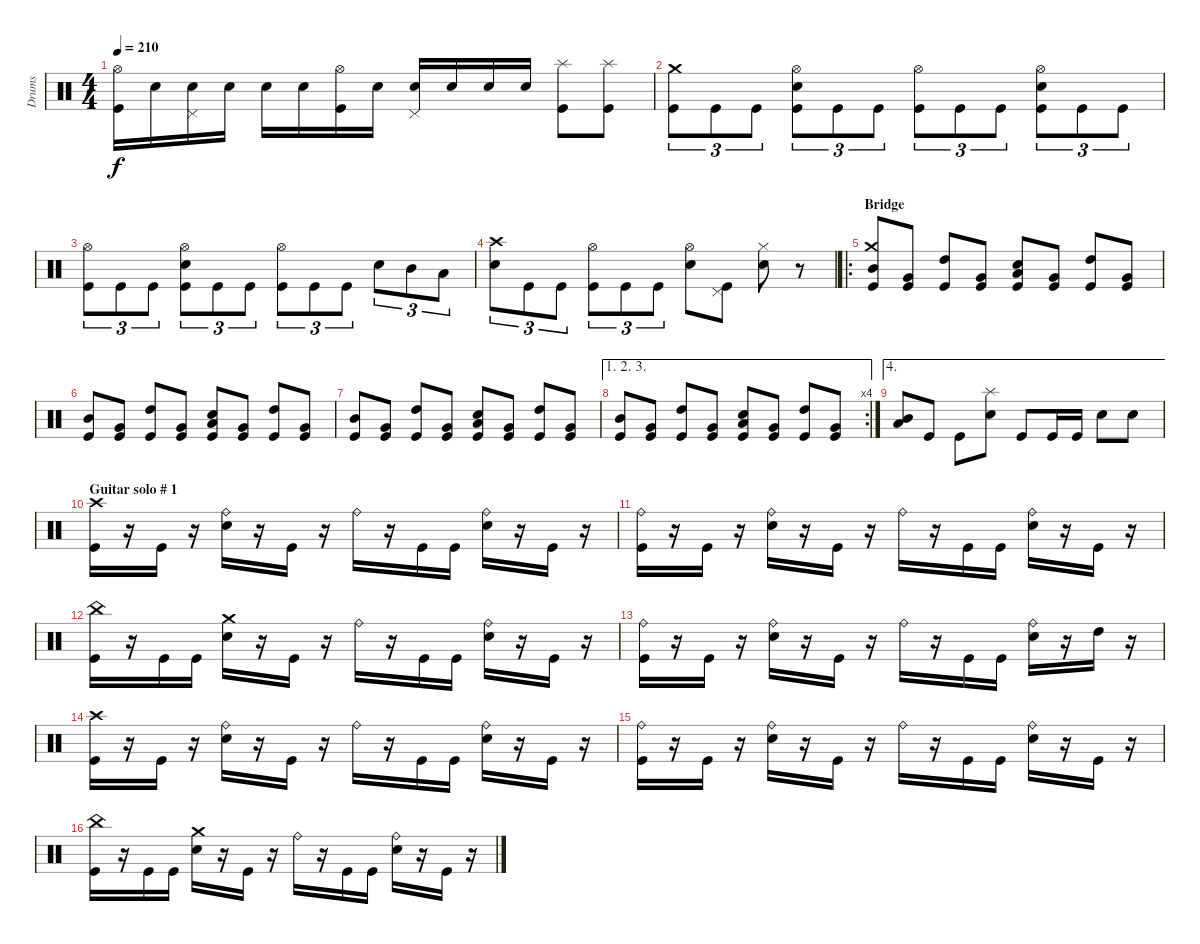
\track ("Drums" "Drums") {instrument percussion}
\staff {score}
\articulation defaults
\ts (4 4)
\tempo 210
\clef neutral
\ks c
("Hi-Hat (open)" "Kick (hit)").16{dy f} "Electric Snare (hit)".16 ("Pedal Hi-Hat (hit)" "Electric Snare (hit)").16 "Electric Snare (hit)".16 "Electric Snare (hit)".16 "Electric Snare (hit)".16 ("Hi-Hat (open)" "Kick (hit)").16 "Electric Snare (hit)".16 ("Pedal Hi-Hat (hit)" "Electric Snare (hit)").16 "Electric Snare (hit)".16 "Electric Snare (hit)".16 "Electric Snare (hit)".16 ("Splash (hit)" "Kick (hit)").8 ("Splash (hit)" "Kick (hit)").8 |
("Crash medium (hit)" "Kick (hit)").8{tu (3 2)} "Kick (hit)".8{tu (3 2)} "Kick (hit)".8{tu (3 2)} ("Hi-Hat (open)" "Electric Snare (hit)" "Kick (hit)").8{tu (3 2)} "Kick (hit)".8{tu (3 2)} "Kick (hit)".8{tu (3 2)} ("Hi-Hat (open)" "Kick (hit)").8{tu (3 2)} "Kick (hit)".8{tu (3 2)} "Kick (hit)".8{tu (3 2)} ("Hi-Hat (open)" "Electric Snare (hit)" "Kick (hit)").8{tu (3 2)} "Kick (hit)".8{tu (3 2)} "Kick (hit)".8{tu (3 2)} |
("Hi-Hat (open)" "Kick (hit)").8{tu (3 2)} "Kick (hit)".8{tu (3 2)} "Kick (hit)".8{tu (3 2)} ("Hi-Hat (open)" "Electric Snare (hit)" "Kick (hit)").8{tu (3 2)} "Kick (hit)".8{tu (3 2)} "Kick (hit)".8{tu (3 2)} ("Hi-Hat (open)" "Kick (hit)").8{tu (3 2)} "Kick (hit)".8{tu (3 2)} "Kick (hit)".8{tu (3 2)} "Electric Snare (hit)".8{tu (3 2)} "Mid Tom (hit)".8{tu (3 2)} "Low Tom (hit)".8{tu (3 2)} |
("Crash high (hit)" "Electric Snare (hit)").8{tu (3 2)} "Kick (hit)".8{tu (3 2)} "Kick (hit)".8{tu (3 2)} ("Hi-Hat (open)" "Kick (hit)").8{tu (3 2)} "Kick (hit)".8{tu (3 2)} "Kick (hit)".8{tu (3 2)} ("Hi-Hat (open)" "Electric Snare (hit)").8 ("Pedal Hi-Hat (hit)" "Kick (hit)").8 ("Hi-Hat (closed)" "Electric Snare (hit)").8 r.8 |
\ro
\section ("" "Bridge")
("Crash medium (hit)" "Mid Tom (hit)" "Kick (hit)").8 ("Very Low Tom (hit)" "Kick (hit)").8 ("High Tom (hit)" "Kick (hit)").8 ("Very Low Tom (hit)" "Kick (hit)").8 ("Low Tom (hit)" "Electric Snare (hit)" "Kick (hit)").8 ("Very Low Tom (hit)" "Kick (hit)").8 ("High Tom (hit)" "Kick (hit)").8 ("Very Low Tom (hit)" "Kick (hit)").8 |
("Mid Tom (hit)" "Kick (hit)").8 ("Very Low Tom (hit)" "Kick (hit)").8 ("High Tom (hit)" "Kick (hit)").8 ("Very Low Tom (hit)" "Kick (hit)").8 ("Low Tom (hit)" "Electric Snare (hit)" "Kick (hit)").8 ("Very Low Tom (hit)" "Kick (hit)").8 ("High Tom (hit)" "Kick (hit)").8 ("Very Low Tom (hit)" "Kick (hit)").8 |
("Mid Tom (hit)" "Kick (hit)").8 ("Very Low Tom (hit)" "Kick (hit)").8 ("High Tom (hit)" "Kick (hit)").8 ("Very Low Tom (hit)" "Kick (hit)").8 ("Low Tom (hit)" "Electric Snare (hit)" "Kick (hit)").8 ("Very Low Tom (hit)" "Kick (hit)").8 ("High Tom (hit)" "Kick (hit)").8 ("Very Low Tom (hit)" "Kick (hit)").8 |
\ae (1 2 3)
\rc 4
("Mid Tom (hit)" "Kick (hit)").8 ("Very Low Tom (hit)" "Kick (hit)").8 ("High Tom (hit)" "Kick (hit)").8 ("Very Low Tom (hit)" "Kick (hit)").8 ("Low Tom (hit)" "Electric Snare (hit)" "Kick (hit)").8 ("Very Low Tom (hit)" "Kick (hit)").8 ("High Tom (hit)" "Kick (hit)").8 ("Very Low Tom (hit)" "Kick (hit)").8 |
\ae 4
("Mid Tom (hit)" "Low Tom (hit)").8 "Kick (hit)".8 "Kick (hit)".8 ("Splash (hit)" "Electric Snare (hit)").8 "Kick (hit)".8 "Kick (hit)".16 "Kick (hit)".16 "Electric Snare (hit)".8 "Electric Snare (hit)".8 |
\section ("" "Guitar solo # 1")
("Crash high (hit)" "Kick (hit)").16 r.16 "Kick (hit)".16 r.16 ("Ride (bell)" "Electric Snare (hit)").16 r.16 "Kick (hit)".16 r.16 "Ride (bell)".16 r.16 "Kick (hit)".16 "Kick (hit)".16 ("Ride (bell)" "Electric Snare (hit)").16 r.16 "Kick (hit)".16 r.16 |
("Ride (bell)" "Kick (hit)").16 r.16 "Kick (hit)".16 r.16 ("Ride (bell)" "Electric Snare (hit)").16 r.16 "Kick (hit)".16 r.16 "Ride (bell)".16 r.16 "Kick (hit)".16 "Kick (hit)".16 ("Ride (bell)" "Electric Snare (hit)").16 r.16 "Kick (hit)".16 r.16 |
("China (hit)" "Kick (hit)").16 r.16 "Kick (hit)".16 "Kick (hit)".16 ("Crash medium (hit)" "Electric Snare (hit)").16 r.16 "Kick (hit)".16 r.16 "Ride (bell)".16 r.16 "Kick (hit)".16 "Kick (hit)".16 ("Ride (bell)" "Electric Snare (hit)").16 r.16 "Kick (hit)".16 r.16 |
("Ride (bell)" "Kick (hit)").16 r.16 "Kick (hit)".16 r.16 ("Ride (bell)" "Electric Snare (hit)").16 r.16 "Kick (hit)".16 r.16 "Ride (bell)".16 r.16 "Kick (hit)".16 "Kick (hit)".16 ("Ride (bell)" "Electric Snare (hit)").16 r.16 "High Tom (hit)".16 r.16 |
("Crash high (hit)" "Kick (hit)").16 r.16 "Kick (hit)".16 r.16 ("Ride (bell)" "Electric Snare (hit)").16 r.16 "Kick (hit)".16 r.16 "Ride (bell)".16 r.16 "Kick (hit)".16 "Kick (hit)".16 ("Ride (bell)" "Electric Snare (hit)").16 r.16 "Kick (hit)".16 r.16 |
("Ride (bell)" "Kick (hit)").16 r.16 "Kick (hit)".16 r.16 ("Ride (bell)" "Electric Snare (hit)").16 r.16 "Kick (hit)".16 r.16 "Ride (bell)".16 r.16 "Kick (hit)".16 "Kick (hit)".16 ("Ride (bell)" "Electric Snare (hit)").16 r.16 "Kick (hit)".16 r.16 |
("China (hit)" "Kick (hit)").16 r.16 "Kick (hit)".16 "Kick (hit)".16 ("Crash medium (hit)" "Electric Snare (hit)").16 r.16 "Kick (hit)".16 r.16 "Ride (bell)".16 r.16 "Kick (hit)".16 "Kick (hit)".16 ("Ride (bell)" "Electric Snare (hit)").16 r.16 "Kick (hit)".16 r.16
